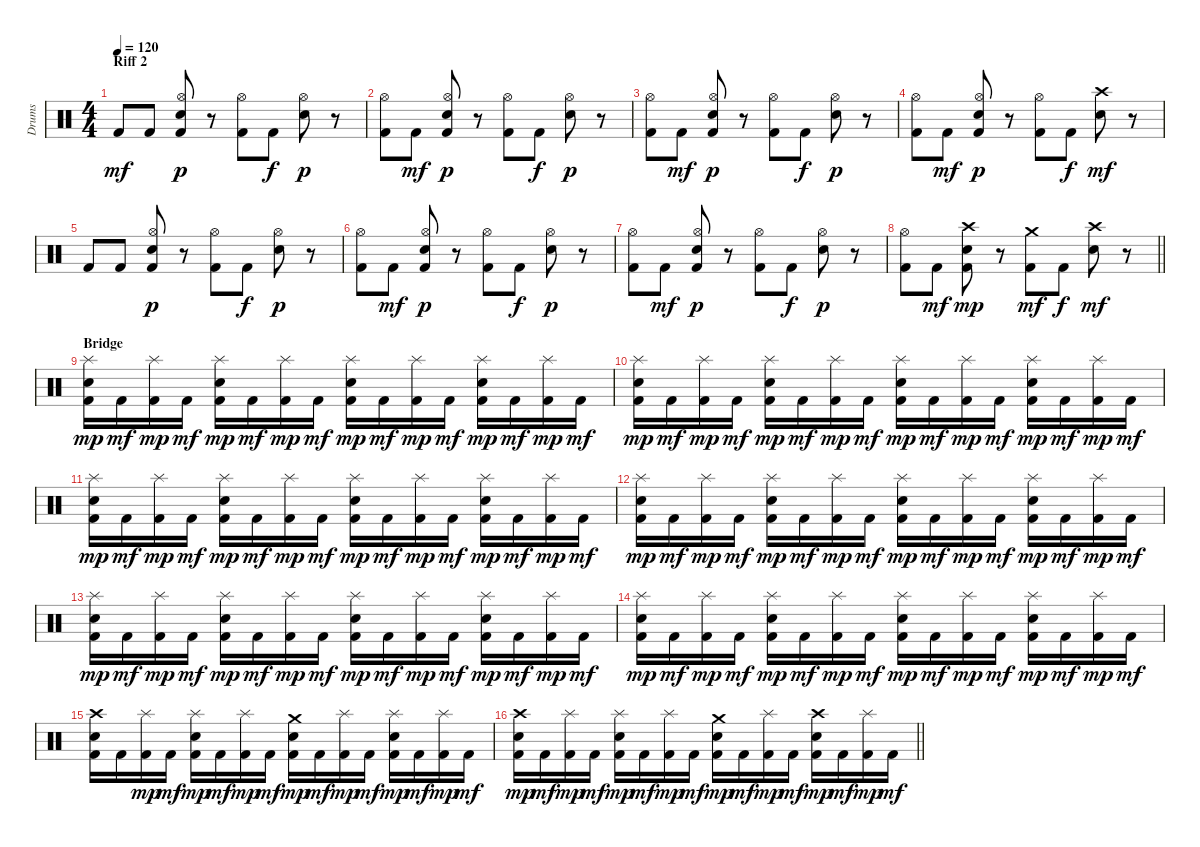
\track ("Drums" "Drums") {instrument percussion}
\staff {score}
\articulation defaults
\ts (4 4)
\section ("" "Riff 2")
\tempo 120
\clef neutral
\ks c "Kick (hit) 2".8{dy mf} "Kick (hit) 2".8
("Kick (hit) 2" "Hi-Hat (open)" "Snare (hit) 2").8{dy p} r.8 ("Kick (hit) 2" "Hi-Hat (open)").8 "Kick (hit) 2".8{dy f} ("Hi-Hat (open)" "Snare (hit) 2").8{dy p} r.8 |
("Kick (hit) 2" "Hi-Hat (open)").8 "Kick (hit) 2".8{dy mf} ("Kick (hit) 2" "Hi-Hat (open)" "Snare (hit) 2").8{dy p} r.8 ("Kick (hit) 2" "Hi-Hat (open)").8 "Kick (hit) 2".8{dy f} ("Hi-Hat (open)" "Snare (hit) 2").8{dy p} r.8 |
("Kick (hit) 2" "Hi-Hat (open)").8 "Kick (hit) 2".8{dy mf} ("Kick (hit) 2" "Hi-Hat (open)" "Snare (hit) 2").8{dy p} r.8 ("Kick (hit) 2" "Hi-Hat (open)").8 "Kick (hit) 2".8{dy f} ("Hi-Hat (open)" "Snare (hit) 2").8{dy p} r.8 |
("Kick (hit) 2" "Hi-Hat (open)").8 "Kick (hit) 2".8{dy mf} ("Kick (hit) 2" "Hi-Hat (open)" "Snare (hit) 2").8{dy p} r.8 ("Kick (hit) 2" "Hi-Hat (open)").8 "Kick (hit) 2".8{dy f} ("Crash high (hit)" "Snare (hit) 2").8{dy mf} r.8 |
"Kick (hit) 2".8 "Kick (hit) 2".8 ("Kick (hit) 2" "Hi-Hat (open)" "Snare (hit) 2").8{dy p} r.8 ("Kick (hit) 2" "Hi-Hat (open)").8 "Kick (hit) 2".8{dy f} ("Hi-Hat (open)" "Snare (hit) 2").8{dy p} r.8 |
("Kick (hit) 2" "Hi-Hat (open)").8 "Kick (hit) 2".8{dy mf} ("Kick (hit) 2" "Hi-Hat (open)" "Snare (hit) 2").8{dy p} r.8 ("Kick (hit) 2" "Hi-Hat (open)").8 "Kick (hit) 2".8{dy f} ("Hi-Hat (open)" "Snare (hit) 2").8{dy p} r.8 |
("Kick (hit) 2" "Hi-Hat (open)").8 "Kick (hit) 2".8{dy mf} ("Kick (hit) 2" "Hi-Hat (open)" "Snare (hit) 2").8{dy p} r.8 ("Kick (hit) 2" "Hi-Hat (open)").8 "Kick (hit) 2".8{dy f} ("Hi-Hat (open)" "Snare (hit) 2").8{dy p} r.8 |
\barLineRight lightlight
("Kick (hit) 2" "Hi-Hat (open)").8 "Kick (hit) 2".8{dy mf} ("Kick (hit) 2" "Crash high (hit)" "Snare (hit) 2").8{dy mp} r.8 ("Kick (hit) 2" "Crash medium (hit)").8{dy mf} "Kick (hit) 2".8{dy f} ("Crash high (hit)" "Snare (hit) 2").8{dy mf} r.8 |
\section ("" "Bridge")
("Kick (hit) 2" "Splash (hit)" "Snare (hit) 2").16{dy mp} "Kick (hit) 2".16{dy mf} ("Kick (hit) 2" "Splash (hit)").16{dy mp} "Kick (hit) 2".16{dy mf} ("Kick (hit) 2" "Splash (hit)" "Snare (hit) 2").16{dy mp} "Kick (hit) 2".16{dy mf} ("Kick (hit) 2" "Splash (hit)").16{dy mp} "Kick (hit) 2".16{dy mf} ("Kick (hit) 2" "Splash (hit)" "Snare (hit) 2").16{dy mp} "Kick (hit) 2".16{dy mf} ("Kick (hit) 2" "Splash (hit)").16{dy mp} "Kick (hit) 2".16{dy mf} ("Kick (hit) 2" "Splash (hit)" "Snare (hit) 2").16{dy mp} "Kick (hit) 2".16{dy mf} ("Kick (hit) 2" "Splash (hit)").16{dy mp} "Kick (hit) 2".16{dy mf} |
("Kick (hit) 2" "Splash (hit)" "Snare (hit) 2").16{dy mp} "Kick (hit) 2".16{dy mf} ("Kick (hit) 2" "Splash (hit)").16{dy mp} "Kick (hit) 2".16{dy mf} ("Kick (hit) 2" "Splash (hit)" "Snare (hit) 2").16{dy mp} "Kick (hit) 2".16{dy mf} ("Kick (hit) 2" "Splash (hit)").16{dy mp} "Kick (hit) 2".16{dy mf} ("Kick (hit) 2" "Splash (hit)" "Snare (hit) 2").16{dy mp} "Kick (hit) 2".16{dy mf} ("Kick (hit) 2" "Splash (hit)").16{dy mp} "Kick (hit) 2".16{dy mf} ("Kick (hit) 2" "Splash (hit)" "Snare (hit) 2").16{dy mp} "Kick (hit) 2".16{dy mf} ("Kick (hit) 2" "Splash (hit)").16{dy mp} "Kick (hit) 2".16{dy mf} |
("Kick (hit) 2" "Splash (hit)" "Snare (hit) 2").16{dy mp} "Kick (hit) 2".16{dy mf} ("Kick (hit) 2" "Splash (hit)").16{dy mp} "Kick (hit) 2".16{dy mf} ("Kick (hit) 2" "Splash (hit)" "Snare (hit) 2").16{dy mp} "Kick (hit) 2".16{dy mf} ("Kick (hit) 2" "Splash (hit)").16{dy mp} "Kick (hit) 2".16{dy mf} ("Kick (hit) 2" "Splash (hit)" "Snare (hit) 2").16{dy mp} "Kick (hit) 2".16{dy mf} ("Kick (hit) 2" "Splash (hit)").16{dy mp} "Kick (hit) 2".16{dy mf} ("Kick (hit) 2" "Splash (hit)" "Snare (hit) 2").16{dy mp} "Kick (hit) 2".16{dy mf} ("Kick (hit) 2" "Splash (hit)").16{dy mp} "Kick (hit) 2".16{dy mf} |
("Kick (hit) 2" "Splash (hit)" "Snare (hit) 2").16{dy mp} "Kick (hit) 2".16{dy mf} ("Kick (hit) 2" "Splash (hit)").16{dy mp} "Kick (hit) 2".16{dy mf} ("Kick (hit) 2" "Splash (hit)" "Snare (hit) 2").16{dy mp} "Kick (hit) 2".16{dy mf} ("Kick (hit) 2" "Splash (hit)").16{dy mp} "Kick (hit) 2".16{dy mf} ("Kick (hit) 2" "Splash (hit)" "Snare (hit) 2").16{dy mp} "Kick (hit) 2".16{dy mf} ("Kick (hit) 2" "Splash (hit)").16{dy mp} "Kick (hit) 2".16{dy mf} ("Kick (hit) 2" "Splash (hit)" "Snare (hit) 2").16{dy mp} "Kick (hit) 2".16{dy mf} ("Kick (hit) 2" "Splash (hit)").16{dy mp} "Kick (hit) 2".16{dy mf} |
("Kick (hit) 2" "Splash (hit)" "Snare (hit) 2").16{dy mp} "Kick (hit) 2".16{dy mf} ("Kick (hit) 2" "Splash (hit)").16{dy mp} "Kick (hit) 2".16{dy mf} ("Kick (hit) 2" "Splash (hit)" "Snare (hit) 2").16{dy mp} "Kick (hit) 2".16{dy mf} ("Kick (hit) 2" "Splash (hit)").16{dy mp} "Kick (hit) 2".16{dy mf} ("Kick (hit) 2" "Splash (hit)" "Snare (hit) 2").16{dy mp} "Kick (hit) 2".16{dy mf} ("Kick (hit) 2" "Splash (hit)").16{dy mp} "Kick (hit) 2".16{dy mf} ("Kick (hit) 2" "Splash (hit)" "Snare (hit) 2").16{dy mp} "Kick (hit) 2".16{dy mf} ("Kick (hit) 2" "Splash (hit)").16{dy mp} "Kick (hit) 2".16{dy mf} |
("Kick (hit) 2" "Splash (hit)" "Snare (hit) 2").16{dy mp} "Kick (hit) 2".16{dy mf} ("Kick (hit) 2" "Splash (hit)").16{dy mp} "Kick (hit) 2".16{dy mf} ("Kick (hit) 2" "Splash (hit)" "Snare (hit) 2").16{dy mp} "Kick (hit) 2".16{dy mf} ("Kick (hit) 2" "Splash (hit)").16{dy mp} "Kick (hit) 2".16{dy mf} ("Kick (hit) 2" "Splash (hit)" "Snare (hit) 2").16{dy mp} "Kick (hit) 2".16{dy mf} ("Kick (hit) 2" "Splash (hit)").16{dy mp} "Kick (hit) 2".16{dy mf} ("Kick (hit) 2" "Splash (hit)" "Snare (hit) 2").16{dy mp} "Kick (hit) 2".16{dy mf} ("Kick (hit) 2" "Splash (hit)").16{dy mp} "Kick (hit) 2".16{dy mf} |
("Kick (hit) 2" "Crash high (hit)" "Snare (hit) 2").16 "Kick (hit) 2".16 ("Kick (hit) 2" "Splash (hit)").16{dy mp} "Kick (hit) 2".16{dy mf} ("Kick (hit) 2" "Splash (hit)" "Snare (hit) 2").16{dy mp} "Kick (hit) 2".16{dy mf} ("Kick (hit) 2" "Splash (hit)").16{dy mp} "Kick (hit) 2".16{dy mf} ("Kick (hit) 2" "Crash medium (hit)" "Snare (hit) 2").16{dy mp} "Kick (hit) 2".16{dy mf} ("Kick (hit) 2" "Splash (hit)").16{dy mp} "Kick (hit) 2".16{dy mf} ("Kick (hit) 2" "Splash (hit)" "Snare (hit) 2").16{dy mp} "Kick (hit) 2".16{dy mf} ("Kick (hit) 2" "Splash (hit)").16{dy mp} "Kick (hit) 2".16{dy mf} |
\barLineRight lightlight
("Kick (hit) 2" "Crash high (hit)" "Snare (hit) 2").16{dy mp} "Kick (hit) 2".16{dy mf} ("Kick (hit) 2" "Splash (hit)").16{dy mp} "Kick (hit) 2".16{dy mf} ("Kick (hit) 2" "Splash (hit)" "Snare (hit) 2").16{dy mp} "Kick (hit) 2".16{dy mf} ("Kick (hit) 2" "Splash (hit)").16{dy mp} "Kick (hit) 2".16{dy mf} ("Kick (hit) 2" "Crash medium (hit)" "Snare (hit) 2").16{dy mp} "Kick (hit) 2".16{dy mf} ("Kick (hit) 2" "Splash (hit)").16{dy mp} "Kick (hit) 2".16{dy mf} ("Kick (hit) 2" "Crash high (hit)" "Snare (hit) 2").16{dy mp} "Kick (hit) 2".16{dy mf} ("Kick (hit) 2" "Splash (hit)").16{dy mp} "Kick (hit) 2".16{dy mf}
